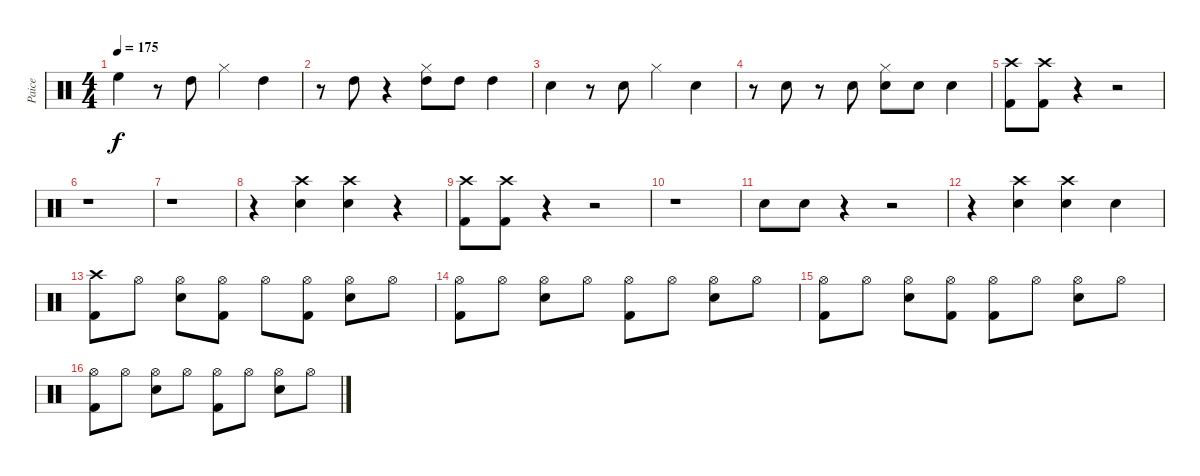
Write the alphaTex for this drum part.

\track ("Paice" "Paice") {instrument percussion}
\staff {score}
\articulation defaults
\ts (4 4)
\tempo 175
\clef neutral
\ks c "High Floor Tom (hit)".4{dy f}
r.8 "High Tom (hit)".8 "Hi-Hat (closed)".4 "High Tom (hit)".4 |
r.8 "High Tom (hit)".8 r.4 ("Hi-Hat (closed)" "High Tom (hit)").8 "High Tom (hit)".8 "High Tom (hit)".4 |
"Electric Snare (hit)".4 r.8 "Electric Snare (hit)".8 "Hi-Hat (closed)".4 "Electric Snare (hit)".4 |
r.8 "Electric Snare (hit)".8 r.8 "Electric Snare (hit)".8 ("Hi-Hat (closed)" "Electric Snare (hit)").8 "Electric Snare (hit)".8 "Electric Snare (hit)".4 |
("Crash high (hit)" "Kick (hit) 2").8 ("Crash high (hit)" "Kick (hit) 2").8 r.4 r.2 |
r.1 |
r.1 |
r.4 ("Crash high (hit)" "Electric Snare (hit)").4 ("Crash high (hit)" "Electric Snare (hit)").4 r.4 |
("Crash high (hit)" "Kick (hit) 2").8 ("Crash high (hit)" "Kick (hit) 2").8 r.4 r.2 |
r.1 |
"Electric Snare (hit)".8 "Electric Snare (hit)".8 r.4 r.2 |
r.4 ("Crash high (hit)" "Electric Snare (hit)").4 ("Crash high (hit)" "Electric Snare (hit)").4 "Electric Snare (hit)".4 |
("Crash high (hit)" "Kick (hit) 2").8 "Hi-Hat (open)".8 ("Hi-Hat (open)" "Electric Snare (hit)").8 ("Hi-Hat (open)" "Kick (hit) 2").8 "Hi-Hat (open)".8 ("Hi-Hat (open)" "Kick (hit) 2").8 ("Hi-Hat (open)" "Electric Snare (hit)").8 "Hi-Hat (open)".8 |
("Hi-Hat (open)" "Kick (hit) 2").8 "Hi-Hat (open)".8 ("Hi-Hat (open)" "Electric Snare (hit)").8 "Hi-Hat (open)".8 ("Hi-Hat (open)" "Kick (hit) 2").8 "Hi-Hat (open)".8 ("Hi-Hat (open)" "Electric Snare (hit)").8 "Hi-Hat (open)".8 |
("Hi-Hat (open)" "Kick (hit) 2").8 "Hi-Hat (open)".8 ("Hi-Hat (open)" "Electric Snare (hit)").8 ("Hi-Hat (open)" "Kick (hit) 2").8 ("Hi-Hat (open)" "Kick (hit) 2").8 "Hi-Hat (open)".8 ("Hi-Hat (open)" "Electric Snare (hit)").8 "Hi-Hat (open)".8 |
("Hi-Hat (open)" "Kick (hit) 2").8 "Hi-Hat (open)".8 ("Hi-Hat (open)" "Electric Snare (hit)").8 "Hi-Hat (open)".8 ("Hi-Hat (open)" "Kick (hit) 2").8 "Hi-Hat (open)".8 ("Hi-Hat (open)" "Electric Snare (hit)").8 "Hi-Hat (open)".8
